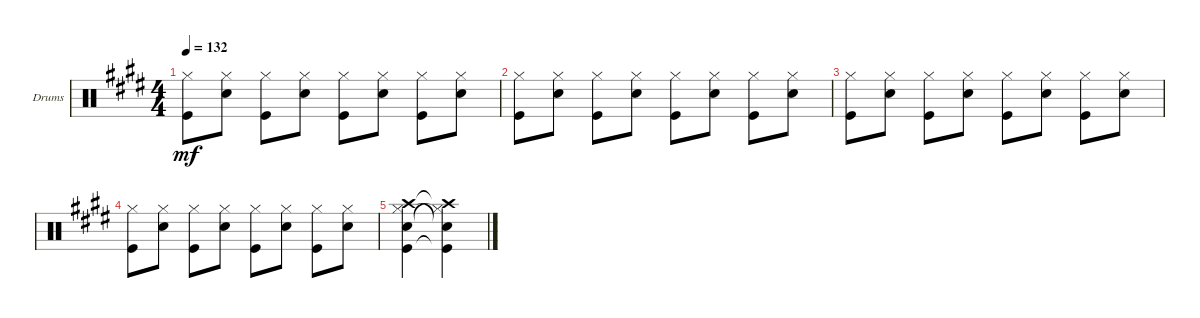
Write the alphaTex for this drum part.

\defaultSystemsLayout 4
\bracketExtendMode groupsimilarinstruments
\firstSystemTrackNameOrientation horizontal
\otherSystemsTrackNameOrientation horizontal
\track ("Drumkit" "Drums") {instrument percussion}
\staff {score}
\articulation defaults
\ts (4 4)
\tempo 132
\clef neutral
\ks c#minor
("Kick (hit)" "Hi-Hat (closed)").8{dy mf} ("Snare (hit) 2" "Hi-Hat (closed)").8 ("Kick (hit)" "Hi-Hat (closed)").8 ("Snare (hit) 2" "Hi-Hat (closed)").8 ("Kick (hit)" "Hi-Hat (closed)").8 ("Snare (hit) 2" "Hi-Hat (closed)").8 ("Kick (hit)" "Hi-Hat (closed)").8 ("Snare (hit) 2" "Hi-Hat (closed)").8 |
("Kick (hit)" "Hi-Hat (closed)").8 ("Snare (hit) 2" "Hi-Hat (closed)").8 ("Kick (hit)" "Hi-Hat (closed)").8 ("Snare (hit) 2" "Hi-Hat (closed)").8 ("Kick (hit)" "Hi-Hat (closed)").8 ("Snare (hit) 2" "Hi-Hat (closed)").8 ("Kick (hit)" "Hi-Hat (closed)").8 ("Snare (hit) 2" "Hi-Hat (closed)").8 |
("Kick (hit)" "Hi-Hat (closed)").8 ("Snare (hit) 2" "Hi-Hat (closed)").8 ("Kick (hit)" "Hi-Hat (closed)").8 ("Snare (hit) 2" "Hi-Hat (closed)").8 ("Kick (hit)" "Hi-Hat (closed)").8 ("Snare (hit) 2" "Hi-Hat (closed)").8 ("Kick (hit)" "Hi-Hat (closed)").8 ("Snare (hit) 2" "Hi-Hat (closed)").8 |
("Kick (hit)" "Hi-Hat (closed)").8 ("Snare (hit) 2" "Hi-Hat (closed)").8 ("Kick (hit)" "Hi-Hat (closed)").8 ("Snare (hit) 2" "Hi-Hat (closed)").8 ("Kick (hit)" "Hi-Hat (closed)").8 ("Snare (hit) 2" "Hi-Hat (closed)").8 ("Kick (hit)" "Hi-Hat (closed)").8 ("Snare (hit) 2" "Hi-Hat (closed)").8 |
("Kick (hit)" "Hi-Hat (closed)" "Snare (hit) 2" "Crash high (hit)").4 ("Kick (hit)"{t} "Snare (hit) 2"{t} "Hi-Hat (closed)"{t} "Crash high (hit)"{t}).4
